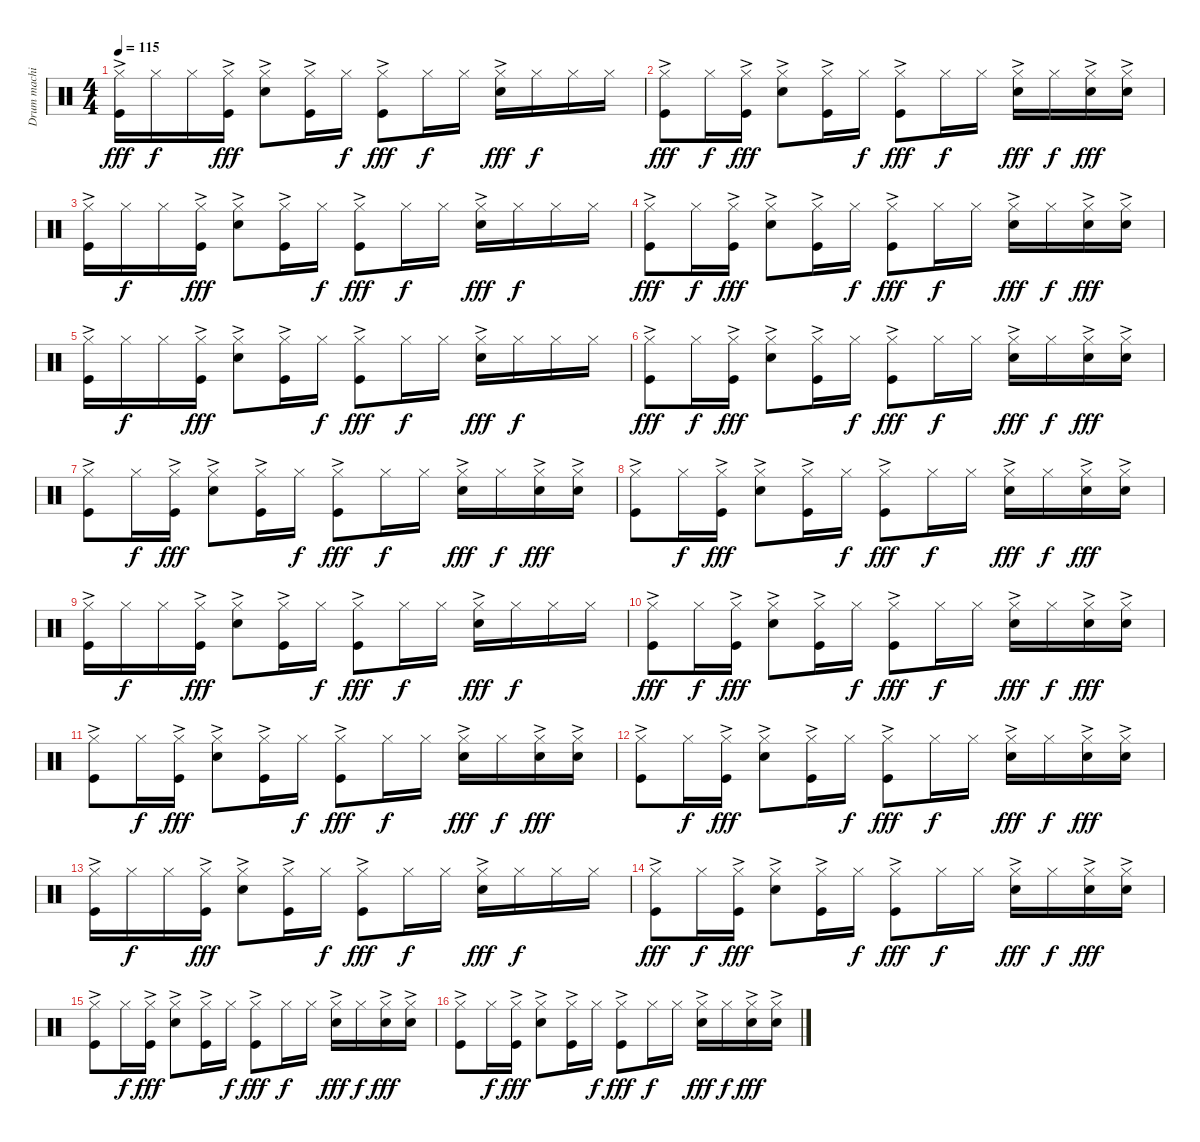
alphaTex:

\track ("Drum machine" "Drum machi") {instrument percussion}
\staff {score}
\articulation defaults
\ts (4 4)
\tempo 115
\clef neutral
\ks c
("Hi-Hat (closed)" "Kick (hit)"{ac}).16{dy fff} "Hi-Hat (closed)".16{dy f} "Hi-Hat (closed)".16 ("Hi-Hat (closed)" "Kick (hit)"{ac}).16{dy fff} ("Hi-Hat (closed)" "Snare (hit) 2"{ac}).8 ("Hi-Hat (closed)" "Kick (hit)"{ac}).16 "Hi-Hat (closed)".16{dy f} ("Hi-Hat (closed)" "Kick (hit)"{ac}).8{dy fff} "Hi-Hat (closed)".16{dy f} "Hi-Hat (closed)".16 ("Hi-Hat (closed)" "Snare (hit) 2"{ac}).16{dy fff} "Hi-Hat (closed)".16{dy f} "Hi-Hat (closed)".16 "Hi-Hat (closed)".16 |
("Hi-Hat (closed)" "Kick (hit)"{ac}).8{dy fff} "Hi-Hat (closed)".16{dy f} ("Hi-Hat (closed)" "Kick (hit)"{ac}).16{dy fff} ("Hi-Hat (closed)" "Snare (hit) 2"{ac}).8 ("Hi-Hat (closed)" "Kick (hit)"{ac}).16 "Hi-Hat (closed)".16{dy f} ("Hi-Hat (closed)" "Kick (hit)"{ac}).8{dy fff} "Hi-Hat (closed)".16{dy f} "Hi-Hat (closed)".16 ("Hi-Hat (closed)" "Snare (hit) 2"{ac}).16{dy fff} "Hi-Hat (closed)".16{dy f} ("Hi-Hat (closed)" "Snare (hit) 2"{ac}).16{dy fff} ("Hi-Hat (closed)" "Snare (hit) 2"{ac}).16 |
("Hi-Hat (closed)" "Kick (hit)"{ac}).16 "Hi-Hat (closed)".16{dy f} "Hi-Hat (closed)".16 ("Hi-Hat (closed)" "Kick (hit)"{ac}).16{dy fff} ("Hi-Hat (closed)" "Snare (hit) 2"{ac}).8 ("Hi-Hat (closed)" "Kick (hit)"{ac}).16 "Hi-Hat (closed)".16{dy f} ("Hi-Hat (closed)" "Kick (hit)"{ac}).8{dy fff} "Hi-Hat (closed)".16{dy f} "Hi-Hat (closed)".16 ("Hi-Hat (closed)" "Snare (hit) 2"{ac}).16{dy fff} "Hi-Hat (closed)".16{dy f} "Hi-Hat (closed)".16 "Hi-Hat (closed)".16 |
("Hi-Hat (closed)" "Kick (hit)"{ac}).8{dy fff} "Hi-Hat (closed)".16{dy f} ("Hi-Hat (closed)" "Kick (hit)"{ac}).16{dy fff} ("Hi-Hat (closed)" "Snare (hit) 2"{ac}).8 ("Hi-Hat (closed)" "Kick (hit)"{ac}).16 "Hi-Hat (closed)".16{dy f} ("Hi-Hat (closed)" "Kick (hit)"{ac}).8{dy fff} "Hi-Hat (closed)".16{dy f} "Hi-Hat (closed)".16 ("Hi-Hat (closed)" "Snare (hit) 2"{ac}).16{dy fff} "Hi-Hat (closed)".16{dy f} ("Hi-Hat (closed)" "Snare (hit) 2"{ac}).16{dy fff} ("Hi-Hat (closed)" "Snare (hit) 2"{ac}).16 |
("Hi-Hat (closed)" "Kick (hit)"{ac}).16 "Hi-Hat (closed)".16{dy f} "Hi-Hat (closed)".16 ("Hi-Hat (closed)" "Kick (hit)"{ac}).16{dy fff} ("Hi-Hat (closed)" "Snare (hit) 2"{ac}).8 ("Hi-Hat (closed)" "Kick (hit)"{ac}).16 "Hi-Hat (closed)".16{dy f} ("Hi-Hat (closed)" "Kick (hit)"{ac}).8{dy fff} "Hi-Hat (closed)".16{dy f} "Hi-Hat (closed)".16 ("Hi-Hat (closed)" "Snare (hit) 2"{ac}).16{dy fff} "Hi-Hat (closed)".16{dy f} "Hi-Hat (closed)".16 "Hi-Hat (closed)".16 |
("Hi-Hat (closed)" "Kick (hit)"{ac}).8{dy fff} "Hi-Hat (closed)".16{dy f} ("Hi-Hat (closed)" "Kick (hit)"{ac}).16{dy fff} ("Hi-Hat (closed)" "Snare (hit) 2"{ac}).8 ("Hi-Hat (closed)" "Kick (hit)"{ac}).16 "Hi-Hat (closed)".16{dy f} ("Hi-Hat (closed)" "Kick (hit)"{ac}).8{dy fff} "Hi-Hat (closed)".16{dy f} "Hi-Hat (closed)".16 ("Hi-Hat (closed)" "Snare (hit) 2"{ac}).16{dy fff} "Hi-Hat (closed)".16{dy f} ("Hi-Hat (closed)" "Snare (hit) 2"{ac}).16{dy fff} ("Hi-Hat (closed)" "Snare (hit) 2"{ac}).16 |
("Hi-Hat (closed)" "Kick (hit)"{ac}).8 "Hi-Hat (closed)".16{dy f} ("Hi-Hat (closed)" "Kick (hit)"{ac}).16{dy fff} ("Hi-Hat (closed)" "Snare (hit) 2"{ac}).8 ("Hi-Hat (closed)" "Kick (hit)"{ac}).16 "Hi-Hat (closed)".16{dy f} ("Hi-Hat (closed)" "Kick (hit)"{ac}).8{dy fff} "Hi-Hat (closed)".16{dy f} "Hi-Hat (closed)".16 ("Hi-Hat (closed)" "Snare (hit) 2"{ac}).16{dy fff} "Hi-Hat (closed)".16{dy f} ("Hi-Hat (closed)" "Snare (hit) 2"{ac}).16{dy fff} ("Hi-Hat (closed)" "Snare (hit) 2"{ac}).16 |
("Hi-Hat (closed)" "Kick (hit)"{ac}).8 "Hi-Hat (closed)".16{dy f} ("Hi-Hat (closed)" "Kick (hit)"{ac}).16{dy fff} ("Hi-Hat (closed)" "Snare (hit) 2"{ac}).8 ("Hi-Hat (closed)" "Kick (hit)"{ac}).16 "Hi-Hat (closed)".16{dy f} ("Hi-Hat (closed)" "Kick (hit)"{ac}).8{dy fff} "Hi-Hat (closed)".16{dy f} "Hi-Hat (closed)".16 ("Hi-Hat (closed)" "Snare (hit) 2"{ac}).16{dy fff} "Hi-Hat (closed)".16{dy f} ("Hi-Hat (closed)" "Snare (hit) 2"{ac}).16{dy fff} ("Hi-Hat (closed)" "Snare (hit) 2"{ac}).16 |
("Hi-Hat (closed)" "Kick (hit)"{ac}).16 "Hi-Hat (closed)".16{dy f} "Hi-Hat (closed)".16 ("Hi-Hat (closed)" "Kick (hit)"{ac}).16{dy fff} ("Hi-Hat (closed)" "Snare (hit) 2"{ac}).8 ("Hi-Hat (closed)" "Kick (hit)"{ac}).16 "Hi-Hat (closed)".16{dy f} ("Hi-Hat (closed)" "Kick (hit)"{ac}).8{dy fff} "Hi-Hat (closed)".16{dy f} "Hi-Hat (closed)".16 ("Hi-Hat (closed)" "Snare (hit) 2"{ac}).16{dy fff} "Hi-Hat (closed)".16{dy f} "Hi-Hat (closed)".16 "Hi-Hat (closed)".16 |
("Hi-Hat (closed)" "Kick (hit)"{ac}).8{dy fff} "Hi-Hat (closed)".16{dy f} ("Hi-Hat (closed)" "Kick (hit)"{ac}).16{dy fff} ("Hi-Hat (closed)" "Snare (hit) 2"{ac}).8 ("Hi-Hat (closed)" "Kick (hit)"{ac}).16 "Hi-Hat (closed)".16{dy f} ("Hi-Hat (closed)" "Kick (hit)"{ac}).8{dy fff} "Hi-Hat (closed)".16{dy f} "Hi-Hat (closed)".16 ("Hi-Hat (closed)" "Snare (hit) 2"{ac}).16{dy fff} "Hi-Hat (closed)".16{dy f} ("Hi-Hat (closed)" "Snare (hit) 2"{ac}).16{dy fff} ("Hi-Hat (closed)" "Snare (hit) 2"{ac}).16 |
("Hi-Hat (closed)" "Kick (hit)"{ac}).8 "Hi-Hat (closed)".16{dy f} ("Hi-Hat (closed)" "Kick (hit)"{ac}).16{dy fff} ("Hi-Hat (closed)" "Snare (hit) 2"{ac}).8 ("Hi-Hat (closed)" "Kick (hit)"{ac}).16 "Hi-Hat (closed)".16{dy f} ("Hi-Hat (closed)" "Kick (hit)"{ac}).8{dy fff} "Hi-Hat (closed)".16{dy f} "Hi-Hat (closed)".16 ("Hi-Hat (closed)" "Snare (hit) 2"{ac}).16{dy fff} "Hi-Hat (closed)".16{dy f} ("Hi-Hat (closed)" "Snare (hit) 2"{ac}).16{dy fff} ("Hi-Hat (closed)" "Snare (hit) 2"{ac}).16 |
("Hi-Hat (closed)" "Kick (hit)"{ac}).8 "Hi-Hat (closed)".16{dy f} ("Hi-Hat (closed)" "Kick (hit)"{ac}).16{dy fff} ("Hi-Hat (closed)" "Snare (hit) 2"{ac}).8 ("Hi-Hat (closed)" "Kick (hit)"{ac}).16 "Hi-Hat (closed)".16{dy f} ("Hi-Hat (closed)" "Kick (hit)"{ac}).8{dy fff} "Hi-Hat (closed)".16{dy f} "Hi-Hat (closed)".16 ("Hi-Hat (closed)" "Snare (hit) 2"{ac}).16{dy fff} "Hi-Hat (closed)".16{dy f} ("Hi-Hat (closed)" "Snare (hit) 2"{ac}).16{dy fff} ("Hi-Hat (closed)" "Snare (hit) 2"{ac}).16 |
("Hi-Hat (closed)" "Kick (hit)"{ac}).16 "Hi-Hat (closed)".16{dy f} "Hi-Hat (closed)".16 ("Hi-Hat (closed)" "Kick (hit)"{ac}).16{dy fff} ("Hi-Hat (closed)" "Snare (hit) 2"{ac}).8 ("Hi-Hat (closed)" "Kick (hit)"{ac}).16 "Hi-Hat (closed)".16{dy f} ("Hi-Hat (closed)" "Kick (hit)"{ac}).8{dy fff} "Hi-Hat (closed)".16{dy f} "Hi-Hat (closed)".16 ("Hi-Hat (closed)" "Snare (hit) 2"{ac}).16{dy fff} "Hi-Hat (closed)".16{dy f} "Hi-Hat (closed)".16 "Hi-Hat (closed)".16 |
("Hi-Hat (closed)" "Kick (hit)"{ac}).8{dy fff} "Hi-Hat (closed)".16{dy f} ("Hi-Hat (closed)" "Kick (hit)"{ac}).16{dy fff} ("Hi-Hat (closed)" "Snare (hit) 2"{ac}).8 ("Hi-Hat (closed)" "Kick (hit)"{ac}).16 "Hi-Hat (closed)".16{dy f} ("Hi-Hat (closed)" "Kick (hit)"{ac}).8{dy fff} "Hi-Hat (closed)".16{dy f} "Hi-Hat (closed)".16 ("Hi-Hat (closed)" "Snare (hit) 2"{ac}).16{dy fff} "Hi-Hat (closed)".16{dy f} ("Hi-Hat (closed)" "Snare (hit) 2"{ac}).16{dy fff} ("Hi-Hat (closed)" "Snare (hit) 2"{ac}).16 |
("Hi-Hat (closed)" "Kick (hit)"{ac}).8 "Hi-Hat (closed)".16{dy f} ("Hi-Hat (closed)" "Kick (hit)"{ac}).16{dy fff} ("Hi-Hat (closed)" "Snare (hit) 2"{ac}).8 ("Hi-Hat (closed)" "Kick (hit)"{ac}).16 "Hi-Hat (closed)".16{dy f} ("Hi-Hat (closed)" "Kick (hit)"{ac}).8{dy fff} "Hi-Hat (closed)".16{dy f} "Hi-Hat (closed)".16 ("Hi-Hat (closed)" "Snare (hit) 2"{ac}).16{dy fff} "Hi-Hat (closed)".16{dy f} ("Hi-Hat (closed)" "Snare (hit) 2"{ac}).16{dy fff} ("Hi-Hat (closed)" "Snare (hit) 2"{ac}).16 |
("Hi-Hat (closed)" "Kick (hit)"{ac}).8 "Hi-Hat (closed)".16{dy f} ("Hi-Hat (closed)" "Kick (hit)"{ac}).16{dy fff} ("Hi-Hat (closed)" "Snare (hit) 2"{ac}).8 ("Hi-Hat (closed)" "Kick (hit)"{ac}).16 "Hi-Hat (closed)".16{dy f} ("Hi-Hat (closed)" "Kick (hit)"{ac}).8{dy fff} "Hi-Hat (closed)".16{dy f} "Hi-Hat (closed)".16 ("Hi-Hat (closed)" "Snare (hit) 2"{ac}).16{dy fff} "Hi-Hat (closed)".16{dy f} ("Hi-Hat (closed)" "Snare (hit) 2"{ac}).16{dy fff} ("Hi-Hat (closed)" "Snare (hit) 2"{ac}).16
